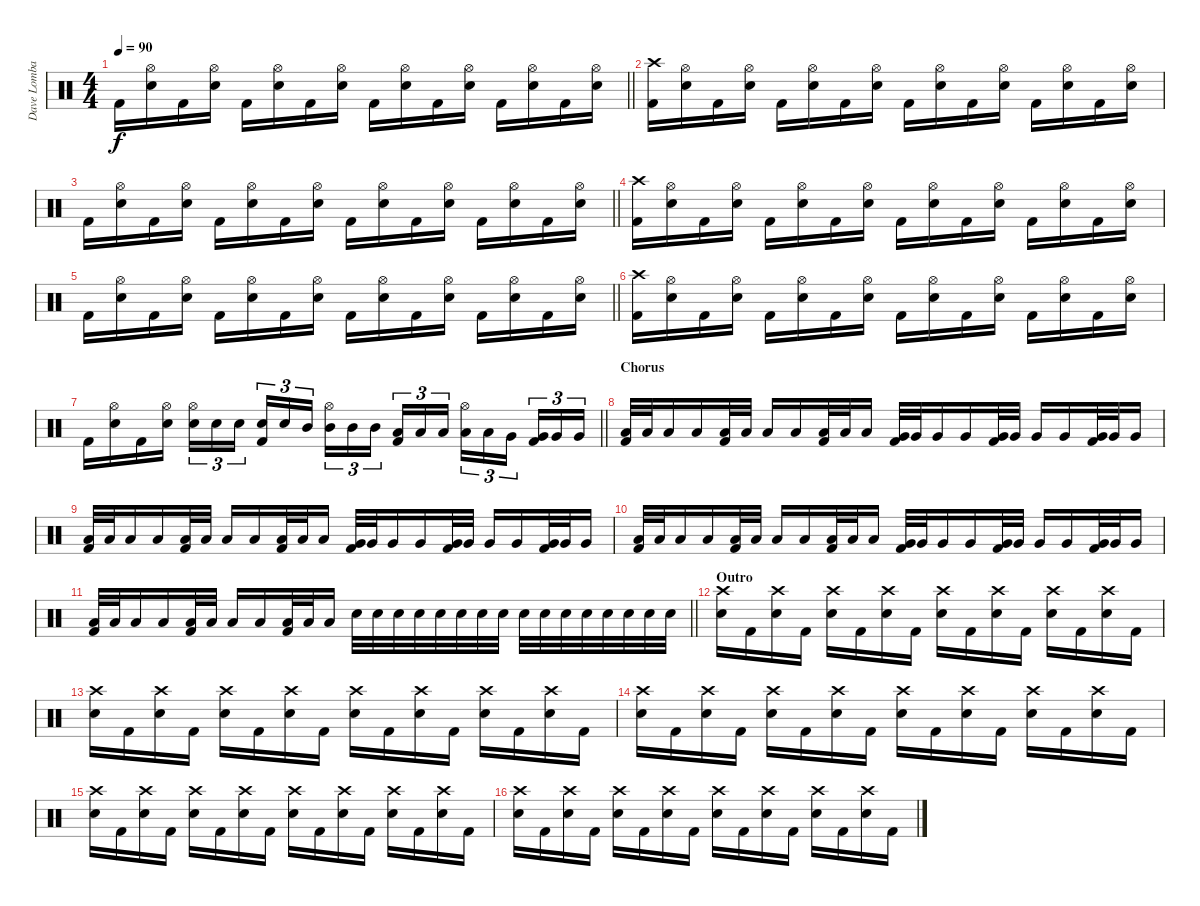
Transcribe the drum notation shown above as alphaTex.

\track ("Dave Lombardo" "Dave Lomba") {instrument percussion}
\staff {score}
\articulation defaults
\ts (4 4)
\tempo 90
\clef neutral
\barLineRight lightlight
\ks c "Kick (hit) 2".16{dy f}
("Hi-Hat (open)" "Snare (hit) 2").16 "Kick (hit) 2".16 ("Hi-Hat (open)" "Snare (hit) 2").16 "Kick (hit) 2".16 ("Hi-Hat (open)" "Snare (hit) 2").16 "Kick (hit) 2".16 ("Hi-Hat (open)" "Snare (hit) 2").16 "Kick (hit) 2".16 ("Hi-Hat (open)" "Snare (hit) 2").16 "Kick (hit) 2".16 ("Hi-Hat (open)" "Snare (hit) 2").16 "Kick (hit) 2".16 ("Hi-Hat (open)" "Snare (hit) 2").16 "Kick (hit) 2".16 ("Hi-Hat (open)" "Snare (hit) 2").16 |
("Crash high (hit)" "Kick (hit) 2").16 ("Hi-Hat (open)" "Snare (hit) 2").16 "Kick (hit) 2".16 ("Hi-Hat (open)" "Snare (hit) 2").16 "Kick (hit) 2".16 ("Hi-Hat (open)" "Snare (hit) 2").16 "Kick (hit) 2".16 ("Hi-Hat (open)" "Snare (hit) 2").16 "Kick (hit) 2".16 ("Hi-Hat (open)" "Snare (hit) 2").16 "Kick (hit) 2".16 ("Hi-Hat (open)" "Snare (hit) 2").16 "Kick (hit) 2".16 ("Hi-Hat (open)" "Snare (hit) 2").16 "Kick (hit) 2".16 ("Hi-Hat (open)" "Snare (hit) 2").16 |
\barLineRight lightlight "Kick (hit) 2".16
("Hi-Hat (open)" "Snare (hit) 2").16 "Kick (hit) 2".16 ("Hi-Hat (open)" "Snare (hit) 2").16 "Kick (hit) 2".16 ("Hi-Hat (open)" "Snare (hit) 2").16 "Kick (hit) 2".16 ("Hi-Hat (open)" "Snare (hit) 2").16 "Kick (hit) 2".16 ("Hi-Hat (open)" "Snare (hit) 2").16 "Kick (hit) 2".16 ("Hi-Hat (open)" "Snare (hit) 2").16 "Kick (hit) 2".16 ("Hi-Hat (open)" "Snare (hit) 2").16 "Kick (hit) 2".16 ("Hi-Hat (open)" "Snare (hit) 2").16 |
("Crash high (hit)" "Kick (hit) 2").16 ("Hi-Hat (open)" "Snare (hit) 2").16 "Kick (hit) 2".16 ("Hi-Hat (open)" "Snare (hit) 2").16 "Kick (hit) 2".16 ("Hi-Hat (open)" "Snare (hit) 2").16 "Kick (hit) 2".16 ("Hi-Hat (open)" "Snare (hit) 2").16 "Kick (hit) 2".16 ("Hi-Hat (open)" "Snare (hit) 2").16 "Kick (hit) 2".16 ("Hi-Hat (open)" "Snare (hit) 2").16 "Kick (hit) 2".16 ("Hi-Hat (open)" "Snare (hit) 2").16 "Kick (hit) 2".16 ("Hi-Hat (open)" "Snare (hit) 2").16 |
\barLineRight lightlight "Kick (hit) 2".16
("Hi-Hat (open)" "Snare (hit) 2").16 "Kick (hit) 2".16 ("Hi-Hat (open)" "Snare (hit) 2").16 "Kick (hit) 2".16 ("Hi-Hat (open)" "Snare (hit) 2").16 "Kick (hit) 2".16 ("Hi-Hat (open)" "Snare (hit) 2").16 "Kick (hit) 2".16 ("Hi-Hat (open)" "Snare (hit) 2").16 "Kick (hit) 2".16 ("Hi-Hat (open)" "Snare (hit) 2").16 "Kick (hit) 2".16 ("Hi-Hat (open)" "Snare (hit) 2").16 "Kick (hit) 2".16 ("Hi-Hat (open)" "Snare (hit) 2").16 |
("Crash high (hit)" "Kick (hit) 2").16 ("Hi-Hat (open)" "Snare (hit) 2").16 "Kick (hit) 2".16 ("Hi-Hat (open)" "Snare (hit) 2").16 "Kick (hit) 2".16 ("Hi-Hat (open)" "Snare (hit) 2").16 "Kick (hit) 2".16 ("Hi-Hat (open)" "Snare (hit) 2").16 "Kick (hit) 2".16 ("Hi-Hat (open)" "Snare (hit) 2").16 "Kick (hit) 2".16 ("Hi-Hat (open)" "Snare (hit) 2").16 "Kick (hit) 2".16 ("Hi-Hat (open)" "Snare (hit) 2").16 "Kick (hit) 2".16 ("Hi-Hat (open)" "Snare (hit) 2").16 |
\barLineRight lightlight "Kick (hit) 2".16
("Hi-Hat (open)" "Snare (hit) 2").16 "Kick (hit) 2".16 ("Hi-Hat (open)" "Snare (hit) 2").16 ("Hi-Hat (open)" "Snare (hit) 2").16{tu (3 2)} "Snare (hit) 2".16{tu (3 2)} "Snare (hit) 2".16{tu (3 2) beam splitsecondary} ("Snare (hit) 2" "Kick (hit) 2").16{tu (3 2)} "Snare (hit) 2".16{tu (3 2)} "Mid Tom (hit)".16{tu (3 2)} ("Hi-Hat (open)" "Mid Tom (hit)").16{tu (3 2)} "Mid Tom (hit)".16{tu (3 2)} "Mid Tom (hit)".16{tu (3 2) beam splitsecondary} ("Low Tom (hit)" "Kick (hit) 2").16{tu (3 2)} "Low Tom (hit)".16{tu (3 2)} "Low Tom (hit)".16{tu (3 2)} ("Hi-Hat (open)" "Low Tom (hit)").16{tu (3 2)} "Low Tom (hit)".16{tu (3 2)} "Very Low Tom (hit)".16{tu (3 2) beam splitsecondary} ("Very Low Tom (hit)" "Kick (hit) 2").16{tu (3 2)} "Very Low Tom (hit)".16{tu (3 2)} "Very Low Tom (hit)".16{tu (3 2)} |
\section ("" "Chorus")
("Low Tom (hit)" "Kick (hit) 2").32 "Low Tom (hit)".32 "Low Tom (hit)".16 "Low Tom (hit)".16 ("Low Tom (hit)" "Kick (hit) 2").32 "Low Tom (hit)".32 "Low Tom (hit)".16 "Low Tom (hit)".16 ("Low Tom (hit)" "Kick (hit) 2").32 "Low Tom (hit)".32 "Low Tom (hit)".16 ("Very Low Tom (hit)" "Kick (hit) 2").32 "Very Low Tom (hit)".32 "Very Low Tom (hit)".16 "Very Low Tom (hit)".16 ("Very Low Tom (hit)" "Kick (hit) 2").32 "Very Low Tom (hit)".32 "Very Low Tom (hit)".16 "Very Low Tom (hit)".16 ("Very Low Tom (hit)" "Kick (hit) 2").32 "Very Low Tom (hit)".32 "Very Low Tom (hit)".16 |
("Low Tom (hit)" "Kick (hit) 2").32 "Low Tom (hit)".32 "Low Tom (hit)".16 "Low Tom (hit)".16 ("Low Tom (hit)" "Kick (hit) 2").32 "Low Tom (hit)".32 "Low Tom (hit)".16 "Low Tom (hit)".16 ("Low Tom (hit)" "Kick (hit) 2").32 "Low Tom (hit)".32 "Low Tom (hit)".16 ("Very Low Tom (hit)" "Kick (hit) 2").32 "Very Low Tom (hit)".32 "Very Low Tom (hit)".16 "Very Low Tom (hit)".16 ("Very Low Tom (hit)" "Kick (hit) 2").32 "Very Low Tom (hit)".32 "Very Low Tom (hit)".16 "Very Low Tom (hit)".16 ("Very Low Tom (hit)" "Kick (hit) 2").32 "Very Low Tom (hit)".32 "Very Low Tom (hit)".16 |
("Low Tom (hit)" "Kick (hit) 2").32 "Low Tom (hit)".32 "Low Tom (hit)".16 "Low Tom (hit)".16 ("Low Tom (hit)" "Kick (hit) 2").32 "Low Tom (hit)".32 "Low Tom (hit)".16 "Low Tom (hit)".16 ("Low Tom (hit)" "Kick (hit) 2").32 "Low Tom (hit)".32 "Low Tom (hit)".16 ("Very Low Tom (hit)" "Kick (hit) 2").32 "Very Low Tom (hit)".32 "Very Low Tom (hit)".16 "Very Low Tom (hit)".16 ("Very Low Tom (hit)" "Kick (hit) 2").32 "Very Low Tom (hit)".32 "Very Low Tom (hit)".16 "Very Low Tom (hit)".16 ("Very Low Tom (hit)" "Kick (hit) 2").32 "Very Low Tom (hit)".32 "Very Low Tom (hit)".16 |
\barLineRight lightlight
("Low Tom (hit)" "Kick (hit) 2").32 "Low Tom (hit)".32 "Low Tom (hit)".16 "Low Tom (hit)".16 ("Low Tom (hit)" "Kick (hit) 2").32 "Low Tom (hit)".32 "Low Tom (hit)".16 "Low Tom (hit)".16 ("Low Tom (hit)" "Kick (hit) 2").32 "Low Tom (hit)".32 "Low Tom (hit)".16 "Snare (hit) 2".32 "Snare (hit) 2".32 "Snare (hit) 2".32 "Snare (hit) 2".32 "Snare (hit) 2".32 "Snare (hit) 2".32 "Snare (hit) 2".32 "Snare (hit) 2".32 "Snare (hit) 2".32 "Snare (hit) 2".32 "Snare (hit) 2".32 "Snare (hit) 2".32 "Snare (hit) 2".32 "Snare (hit) 2".32 "Snare (hit) 2".32 "Snare (hit) 2".32 |
\section ("" "Outro")
("Crash high (hit)" "Snare (hit) 2").16 "Kick (hit) 2".16 ("Crash high (hit)" "Snare (hit) 2").16 "Kick (hit) 2".16 ("Crash high (hit)" "Snare (hit) 2").16 "Kick (hit) 2".16 ("Crash high (hit)" "Snare (hit) 2").16 "Kick (hit) 2".16 ("Crash high (hit)" "Snare (hit) 2").16 "Kick (hit) 2".16 ("Crash high (hit)" "Snare (hit) 2").16 "Kick (hit) 2".16 ("Crash high (hit)" "Snare (hit) 2").16 "Kick (hit) 2".16 ("Crash high (hit)" "Snare (hit) 2").16 "Kick (hit) 2".16 |
("Crash high (hit)" "Snare (hit) 2").16 "Kick (hit) 2".16 ("Crash high (hit)" "Snare (hit) 2").16 "Kick (hit) 2".16 ("Crash high (hit)" "Snare (hit) 2").16 "Kick (hit) 2".16 ("Crash high (hit)" "Snare (hit) 2").16 "Kick (hit) 2".16 ("Crash high (hit)" "Snare (hit) 2").16 "Kick (hit) 2".16 ("Crash high (hit)" "Snare (hit) 2").16 "Kick (hit) 2".16 ("Crash high (hit)" "Snare (hit) 2").16 "Kick (hit) 2".16 ("Crash high (hit)" "Snare (hit) 2").16 "Kick (hit) 2".16 |
("Crash high (hit)" "Snare (hit) 2").16 "Kick (hit) 2".16 ("Crash high (hit)" "Snare (hit) 2").16 "Kick (hit) 2".16 ("Crash high (hit)" "Snare (hit) 2").16 "Kick (hit) 2".16 ("Crash high (hit)" "Snare (hit) 2").16 "Kick (hit) 2".16 ("Crash high (hit)" "Snare (hit) 2").16 "Kick (hit) 2".16 ("Crash high (hit)" "Snare (hit) 2").16 "Kick (hit) 2".16 ("Crash high (hit)" "Snare (hit) 2").16 "Kick (hit) 2".16 ("Crash high (hit)" "Snare (hit) 2").16 "Kick (hit) 2".16 |
("Crash high (hit)" "Snare (hit) 2").16 "Kick (hit) 2".16 ("Crash high (hit)" "Snare (hit) 2").16 "Kick (hit) 2".16 ("Crash high (hit)" "Snare (hit) 2").16 "Kick (hit) 2".16 ("Crash high (hit)" "Snare (hit) 2").16 "Kick (hit) 2".16 ("Crash high (hit)" "Snare (hit) 2").16 "Kick (hit) 2".16 ("Crash high (hit)" "Snare (hit) 2").16 "Kick (hit) 2".16 ("Crash high (hit)" "Snare (hit) 2").16 "Kick (hit) 2".16 ("Crash high (hit)" "Snare (hit) 2").16 "Kick (hit) 2".16 |
("Crash high (hit)" "Snare (hit) 2").16 "Kick (hit) 2".16 ("Crash high (hit)" "Snare (hit) 2").16 "Kick (hit) 2".16 ("Crash high (hit)" "Snare (hit) 2").16 "Kick (hit) 2".16 ("Crash high (hit)" "Snare (hit) 2").16 "Kick (hit) 2".16 ("Crash high (hit)" "Snare (hit) 2").16 "Kick (hit) 2".16 ("Crash high (hit)" "Snare (hit) 2").16 "Kick (hit) 2".16 ("Crash high (hit)" "Snare (hit) 2").16 "Kick (hit) 2".16 ("Crash high (hit)" "Snare (hit) 2").16 "Kick (hit) 2".16
